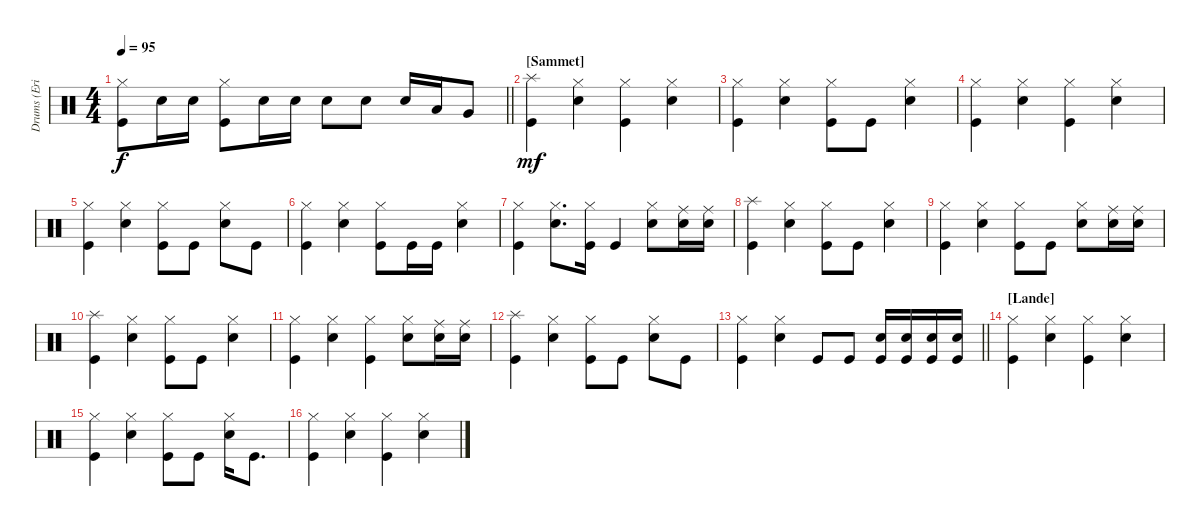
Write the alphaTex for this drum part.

\track ("Drums (Eric Singer)" "Drums (Eri") {instrument percussion}
\staff {score}
\articulation defaults
\ts (4 4)
\tempo 95
\clef neutral
\barLineRight lightlight
\ks c
("Hi-Hat (closed)" "Kick (hit)").8{dy f} "Snare (hit) 2".16 "Snare (hit) 2".16 ("Hi-Hat (closed)" "Kick (hit)").8 "Snare (hit) 2".16 "Snare (hit) 2".16 "Snare (hit) 2".8 "Snare (hit) 2".8 "Snare (hit) 2".16 "Low Tom (hit)".16 "Very Low Tom (hit)".8 |
\section ("" "[Sammet]")
("Splash (hit)" "Kick (hit)").4{dy mf} ("Hi-Hat (closed)" "Snare (hit) 2").4 ("Hi-Hat (closed)" "Kick (hit)").4 ("Hi-Hat (closed)" "Snare (hit) 2").4 |
("Hi-Hat (closed)" "Kick (hit)").4 ("Hi-Hat (closed)" "Snare (hit) 2").4 ("Hi-Hat (closed)" "Kick (hit)").8 "Kick (hit)".8 ("Hi-Hat (closed)" "Snare (hit) 2").4 |
("Hi-Hat (closed)" "Kick (hit)").4 ("Hi-Hat (closed)" "Snare (hit) 2").4 ("Hi-Hat (closed)" "Kick (hit)").4 ("Hi-Hat (closed)" "Snare (hit) 2").4 |
("Hi-Hat (closed)" "Kick (hit)").4 ("Hi-Hat (closed)" "Snare (hit) 2").4 ("Hi-Hat (closed)" "Kick (hit)").8 "Kick (hit)".8 ("Hi-Hat (closed)" "Snare (hit) 2").8 "Kick (hit)".8 |
("Hi-Hat (closed)" "Kick (hit)").4 ("Hi-Hat (closed)" "Snare (hit) 2").4 ("Hi-Hat (closed)" "Kick (hit)").8 "Kick (hit)".16 "Kick (hit)".16 ("Hi-Hat (closed)" "Snare (hit) 2").4 |
("Hi-Hat (closed)" "Kick (hit)").4 ("Hi-Hat (closed)" "Snare (hit) 2").8{d} ("Hi-Hat (closed)" "Kick (hit)").16 "Kick (hit)".4 ("Hi-Hat (closed)" "Snare (hit) 2").8 ("Ride (middle)" "Snare (hit) 2").16 ("Ride (middle)" "Snare (hit) 2").16 |
("Splash (hit)" "Kick (hit)").4 ("Hi-Hat (closed)" "Snare (hit) 2").4 ("Hi-Hat (closed)" "Kick (hit)").8 "Kick (hit)".8 ("Hi-Hat (closed)" "Snare (hit) 2").4 |
("Hi-Hat (closed)" "Kick (hit)").4 ("Hi-Hat (closed)" "Snare (hit) 2").4 ("Hi-Hat (closed)" "Kick (hit)").8 "Kick (hit)".8 ("Hi-Hat (closed)" "Snare (hit) 2").8 ("Ride (middle)" "Snare (hit) 2").16 ("Ride (middle)" "Snare (hit) 2").16 |
("Splash (hit)" "Kick (hit)").4 ("Hi-Hat (closed)" "Snare (hit) 2").4 ("Hi-Hat (closed)" "Kick (hit)").8 "Kick (hit)".8 ("Hi-Hat (closed)" "Snare (hit) 2").4 |
("Hi-Hat (closed)" "Kick (hit)").4 ("Hi-Hat (closed)" "Snare (hit) 2").4 ("Hi-Hat (closed)" "Kick (hit)").4 ("Hi-Hat (closed)" "Snare (hit) 2").8 ("Ride (middle)" "Snare (hit) 2").16 ("Ride (middle)" "Snare (hit) 2").16 |
("Splash (hit)" "Kick (hit)").4 ("Hi-Hat (closed)" "Snare (hit) 2").4 ("Hi-Hat (closed)" "Kick (hit)").8 "Kick (hit)".8 ("Hi-Hat (closed)" "Snare (hit) 2").8 "Kick (hit)".8 |
\barLineRight lightlight
("Hi-Hat (closed)" "Kick (hit)").4 ("Hi-Hat (closed)" "Snare (hit) 2").4 "Kick (hit)".8 "Kick (hit)".8 ("Snare (hit) 2" "Kick (hit)").16 ("Snare (hit) 2" "Kick (hit)").16 ("Snare (hit) 2" "Kick (hit)").16 ("Snare (hit) 2" "Kick (hit)").16 |
\section ("" "[Lande]")
("Hi-Hat (closed)" "Kick (hit)").4 ("Hi-Hat (closed)" "Snare (hit) 2").4 ("Hi-Hat (closed)" "Kick (hit)").4 ("Hi-Hat (closed)" "Snare (hit) 2").4 |
("Hi-Hat (closed)" "Kick (hit)").4 ("Hi-Hat (closed)" "Snare (hit) 2").4 ("Hi-Hat (closed)" "Kick (hit)").8 "Kick (hit)".8 ("Hi-Hat (closed)" "Snare (hit) 2").16 "Kick (hit)".8{d} |
("Hi-Hat (closed)" "Kick (hit)").4 ("Hi-Hat (closed)" "Snare (hit) 2").4 ("Hi-Hat (closed)" "Kick (hit)").4 ("Hi-Hat (closed)" "Snare (hit) 2").4
